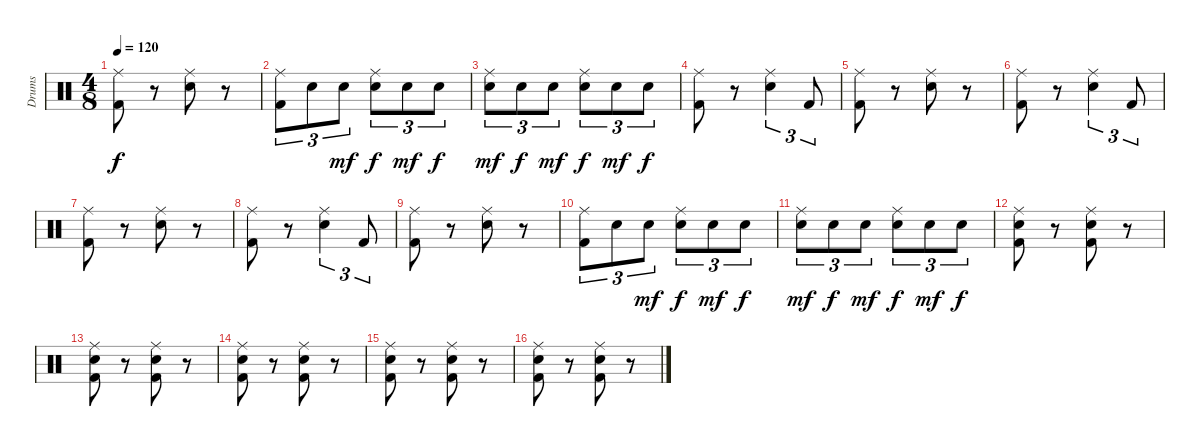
\track ("Drums" "Drums") {instrument percussion}
\staff {score}
\articulation defaults
\ts (4 8)
\tempo 120
\clef neutral
\ks c
("Ride (middle)" "Kick (hit) 2").8{dy f} r.8 ("Ride (middle)" "Electric Snare (hit)").8 r.8 |
("Ride (middle)" "Kick (hit) 2").8{tu (3 2)} "Electric Snare (hit)".8{tu (3 2)} "Electric Snare (hit)".8{tu (3 2) dy mf} ("Ride (middle)" "Electric Snare (hit)").8{tu (3 2) dy f} "Electric Snare (hit)".8{tu (3 2) dy mf} "Electric Snare (hit)".8{tu (3 2) dy f} |
("Ride (middle)" "Electric Snare (hit)").8{tu (3 2) dy mf} "Electric Snare (hit)".8{tu (3 2) dy f} "Electric Snare (hit)".8{tu (3 2) dy mf} ("Ride (middle)" "Electric Snare (hit)").8{tu (3 2) dy f} "Electric Snare (hit)".8{tu (3 2) dy mf} "Electric Snare (hit)".8{tu (3 2) dy f} |
("Ride (middle)" "Kick (hit) 2").8 r.8 ("Ride (middle)" "Electric Snare (hit)").4{tu (3 2)} "Kick (hit) 2".8{tu (3 2)} |
("Ride (middle)" "Kick (hit) 2").8 r.8 ("Ride (middle)" "Electric Snare (hit)").8 r.8 |
("Ride (middle)" "Kick (hit) 2").8 r.8 ("Ride (middle)" "Electric Snare (hit)").4{tu (3 2)} "Kick (hit) 2".8{tu (3 2)} |
("Ride (middle)" "Kick (hit) 2").8 r.8 ("Ride (middle)" "Electric Snare (hit)").8 r.8 |
("Ride (middle)" "Kick (hit) 2").8 r.8 ("Ride (middle)" "Electric Snare (hit)").4{tu (3 2)} "Kick (hit) 2".8{tu (3 2)} |
("Ride (middle)" "Kick (hit) 2").8 r.8 ("Ride (middle)" "Electric Snare (hit)").8 r.8 |
("Ride (middle)" "Kick (hit) 2").8{tu (3 2)} "Electric Snare (hit)".8{tu (3 2)} "Electric Snare (hit)".8{tu (3 2) dy mf} ("Ride (middle)" "Electric Snare (hit)").8{tu (3 2) dy f} "Electric Snare (hit)".8{tu (3 2) dy mf} "Electric Snare (hit)".8{tu (3 2) dy f} |
("Ride (middle)" "Electric Snare (hit)").8{tu (3 2) dy mf} "Electric Snare (hit)".8{tu (3 2) dy f} "Electric Snare (hit)".8{tu (3 2) dy mf} ("Ride (middle)" "Electric Snare (hit)").8{tu (3 2) dy f} "Electric Snare (hit)".8{tu (3 2) dy mf} "Electric Snare (hit)".8{tu (3 2) dy f} |
("Ride (middle)" "Electric Snare (hit)" "Kick (hit) 2").8 r.8 ("Ride (middle)" "Electric Snare (hit)" "Kick (hit) 2").8 r.8 |
("Ride (middle)" "Electric Snare (hit)" "Kick (hit) 2").8 r.8 ("Ride (middle)" "Electric Snare (hit)" "Kick (hit) 2").8 r.8 |
("Ride (middle)" "Electric Snare (hit)" "Kick (hit) 2").8 r.8 ("Ride (middle)" "Electric Snare (hit)" "Kick (hit) 2").8 r.8 |
("Ride (middle)" "Electric Snare (hit)" "Kick (hit) 2").8 r.8 ("Ride (middle)" "Electric Snare (hit)" "Kick (hit) 2").8 r.8 |
("Ride (middle)" "Electric Snare (hit)" "Kick (hit) 2").8 r.8 ("Ride (middle)" "Electric Snare (hit)" "Kick (hit) 2").8 r.8
